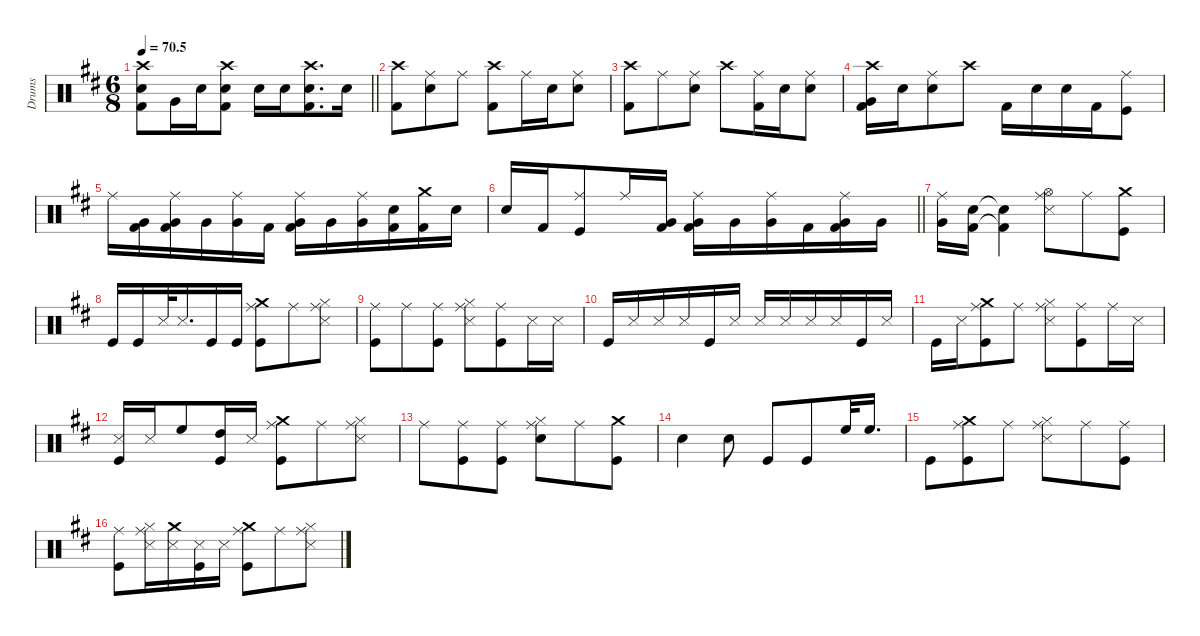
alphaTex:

\defaultSystemsLayout 4
\hideDynamics
\bracketExtendMode groupsimilarinstruments
\firstSystemTrackNameMode fullname
\otherSystemsTrackNameOrientation horizontal
\track ("Drums" "drm.") {defaultSystemsLayout 4 instrument percussion}
\staff {score}
\articulation defaults
\ts (6 8)
\tempo
70.5
\accidentals auto
\clef neutral
\ottava regular
\simile none
\barLineRight lightlight
\ks bminor
("Snare (hit) 2"{acc forcenatural} "Kick (hit) 2"{acc forcenatural} "Crash high (hit)"{acc #}).8{dy ff beam Down} "Very Low Tom (hit)"{acc forcenatural}.16{beam Down} "Snare (hit) 2"{acc forcenatural}.16{beam Down} ("Snare (hit) 2"{acc forcenatural} "Kick (hit) 2"{acc forcenatural} "Crash high (hit)"{acc #}).8{beam Down} "Snare (hit) 2"{acc forcenatural}.16{beam Down} "Snare (hit) 2"{acc forcenatural}.16{beam Down} ("Snare (hit) 2"{acc forcenatural} "Kick (hit) 2"{acc forcenatural} "Crash high (hit)"{acc #}).8{d beam Down} "Snare (hit) 2"{acc forcenatural}.16{beam Down} |
("Crash high (hit)"{acc #} "Kick (hit) 2"{acc forcenatural}).8{beam Down} ("Ride (middle)"{acc #} "Snare (hit) 2"{acc forcenatural}).8{beam Down} "Ride (middle)"{acc #}.8{beam Down} ("Crash high (hit)"{acc #} "Kick (hit) 2"{acc forcenatural}).8{beam Down} "Ride (middle)"{acc #}.16{beam Down} "Snare (hit) 2"{acc forcenatural}.16{beam Down} ("Ride (middle)"{acc #} "Snare (hit) 2"{acc forcenatural}).8{beam Down} |
("Crash high (hit)"{acc #} "Kick (hit) 2"{acc forcenatural}).8{beam Down} "Ride (middle)"{acc #}.8{beam Down} ("Snare (hit) 2"{acc forcenatural} "Ride (middle)"{acc #}).8{beam Down} "Crash high (hit)"{acc #}.8{beam Down} ("Ride (middle)"{acc #} "Kick (hit) 2"{acc forcenatural}).16{beam Down} "Snare (hit) 2"{acc forcenatural}.16{beam Down} ("Snare (hit) 2"{acc forcenatural} "Ride (middle)"{acc #}).8{beam Down} |
("Very Low Tom (hit)"{acc forcenatural} "Kick (hit) 2"{acc forcenatural} "Crash high (hit)"{acc #}).16{beam Down} "Snare (hit) 2"{acc forcenatural}.16{beam Down} ("Ride (middle)"{acc #} "Snare (hit) 2"{acc forcenatural}).8{beam Down} "Crash high (hit)"{acc #}.8{beam Down} "Kick (hit) 2"{acc forcenatural}.16{beam Down} "Snare (hit) 2"{acc forcenatural}.16{beam Down} "Snare (hit) 2"{acc forcenatural}.16{beam Down} "Kick (hit) 2"{acc forcenatural}.16{beam Down} ("Ride (middle)"{acc #} "Kick (hit)"{acc forcenatural}).8{beam Down} |
"Ride (middle)"{acc #}.16{beam Down} ("Kick (hit) 2"{acc forcenatural} "Very Low Tom (hit)"{acc forcenatural}).16{beam Down} ("Very Low Tom (hit)"{acc forcenatural} "Ride (middle)"{acc #} "Kick (hit) 2"{acc forcenatural}).16{beam Down} "Very Low Tom (hit)"{acc forcenatural}.16{beam Down} ("Very Low Tom (hit)"{acc forcenatural} "Ride (middle)"{acc #}).16{beam Down} "Kick (hit) 2"{acc forcenatural}.16{beam Down} ("Very Low Tom (hit)"{acc forcenatural} "Ride (middle)"{acc #} "Kick (hit) 2"{acc forcenatural}).16{beam Down} "Very Low Tom (hit)"{acc forcenatural}.16{beam Down} ("Very Low Tom (hit)"{acc forcenatural} "Ride (middle)"{acc #}).16{beam Down} ("Kick (hit) 2"{acc forcenatural} "Snare (hit) 2"{acc forcenatural}).16{beam Down} ("Kick (hit) 2"{acc forcenatural} "Crash medium (hit)"{acc forcenatural}).16{beam Down} "Snare (hit) 2"{acc forcenatural}.16{beam Down} |
\barLineRight lightlight "Snare (hit) 2"{acc forcenatural}.16{beam Up} "Kick (hit) 2"{acc forcenatural}.16{beam Up}
("Ride (middle)"{acc #} "Kick (hit)"{acc forcenatural}).8{beam Up} "Ride (middle)"{acc #}.16{beam Up} ("Kick (hit) 2"{acc forcenatural} "Very Low Tom (hit)"{acc forcenatural}).16{beam Up} ("Very Low Tom (hit)"{acc forcenatural} "Ride (middle)"{acc #} "Kick (hit) 2"{acc forcenatural}).16{beam Down} "Very Low Tom (hit)"{acc forcenatural}.16{beam Down} ("Very Low Tom (hit)"{acc forcenatural} "Ride (middle)"{acc #}).16{beam Down} "Kick (hit) 2"{acc forcenatural}.16{beam Down} ("Very Low Tom (hit)"{acc forcenatural} "Ride (middle)"{acc #} "Kick (hit) 2"{acc forcenatural}).16{beam Down} "Very Low Tom (hit)"{acc forcenatural}.16{beam Down} |
("Very Low Tom (hit)"{acc forcenatural} "Ride (middle)"{acc #}).16{beam Down} ("Kick (hit) 2"{acc forcenatural} "Snare (hit) 2"{acc forcenatural}).16{beam Down} ("Kick (hit) 2"{t acc forcenatural} "Snare (hit) 2"{t acc forcenatural}).4{dy mf beam Down} ("Hi-Hat (open)"{acc #} "Ride (middle)"{acc #} "Snare (side stick) 3"{acc forcenatural}).8{dy ff beam Down} "Ride (middle)"{acc #}.8{dy f beam Down} ("Kick (hit)"{acc forcenatural} "Crash medium (hit)"{acc forcenatural}).8{beam Down} |
"Kick (hit)"{acc forcenatural}.16{beam Up} "Kick (hit)"{acc forcenatural}.16{beam Up} "Snare (side stick) 3"{acc forcenatural}.32{dy mf beam Up} "Snare (side stick) 3"{acc forcenatural}.16{d dy p beam Up} "Kick (hit)"{acc forcenatural}.16{dy f beam Up} "Kick (hit)"{acc forcenatural}.16{beam Up} ("Crash medium (hit)"{acc forcenatural} "Kick (hit)"{acc forcenatural} "Ride (middle)"{acc #}).8{dy fff beam Down} "Ride (middle)"{acc #}.8{dy f beam Down} ("Hi-Hat (closed)"{acc #} "Ride (middle)"{acc #} "Snare (side stick) 3"{acc forcenatural}).8{dy ff beam Down} |
("Kick (hit)"{acc forcenatural} "Ride (middle)"{acc #}).8{dy fff beam Down} "Ride (middle)"{acc #}.8{dy f beam Down} ("Kick (hit)"{acc forcenatural} "Ride (middle)"{acc #}).8{beam Down} ("Hi-Hat (closed)"{acc #} "Ride (middle)"{acc #} "Snare (side stick) 3"{acc forcenatural}).8{dy fff beam Down} ("Kick (hit)"{acc forcenatural} "Ride (middle)"{acc #}).8{dy f beam Down} "Snare (side stick) 3"{acc forcenatural}.16{dy ff beam Down} "Snare (side stick) 3"{acc forcenatural}.16{dy mf beam Down} |
"Kick (hit)"{acc forcenatural}.16{dy f beam Up} "Snare (side stick) 3"{acc forcenatural}.16{beam Up} "Snare (side stick) 3"{acc forcenatural}.16{beam Up} "Snare (side stick) 3"{acc forcenatural}.16{dy mp beam Up} "Kick (hit)"{acc forcenatural}.16{dy f beam Up} "Snare (side stick) 3"{acc forcenatural}.16{beam Up} "Snare (side stick) 3"{acc forcenatural}.16{beam Up} "Snare (side stick) 3"{acc forcenatural}.16{beam Up} "Snare (side stick) 3"{acc forcenatural}.16{dy mf beam Up} "Snare (side stick) 3"{acc forcenatural}.16{dy mp beam Up} "Kick (hit)"{acc forcenatural}.16{dy f beam Up} "Snare (side stick) 3"{acc forcenatural}.16{beam Up} |
"Kick (hit)"{acc forcenatural}.16{beam Down} "Snare (side stick) 3"{acc forcenatural}.16{beam Down} ("Crash medium (hit)"{acc forcenatural} "Kick (hit)"{acc forcenatural} "Ride (middle)"{acc #}).8{dy fff beam Down} "Ride (middle)"{acc #}.8{dy f beam Down} ("Hi-Hat (closed)"{acc #} "Ride (middle)"{acc #} "Snare (side stick) 3"{acc forcenatural}).8{dy fff beam Down} ("Kick (hit)"{acc forcenatural} "Ride (middle)"{acc #}).8{beam Down} "Ride (middle)"{acc #}.16{beam Down} "Snare (side stick) 3"{acc forcenatural}.16{beam Down} |
("Kick (hit)"{acc forcenatural} "Snare (side stick) 3"{acc forcenatural}).16{dy f beam Up} "Snare (side stick) 3"{acc forcenatural}.16{beam Up} "High Floor Tom (hit)"{acc forcenatural}.8{dy fff beam Up} ("Kick (hit)"{acc forcenatural} "High Tom (hit)"{acc forcenatural}).16{dy f beam Up} "Snare (side stick) 3"{acc forcenatural}.16{beam Up} ("Crash medium (hit)"{acc forcenatural} "Kick (hit)"{acc forcenatural} "Ride (middle)"{acc #}).8{dy fff beam Down} "Ride (middle)"{acc #}.8{dy f beam Down} ("Hi-Hat (closed)"{acc #} "Ride (middle)"{acc #} "Snare (side stick) 3"{acc forcenatural}).8{dy fff beam Down} |
"Ride (middle)"{acc #}.8{beam Down} ("Kick (hit)"{acc forcenatural} "Ride (middle)"{acc #}).8{beam Down} ("Kick (hit)"{acc forcenatural} "Ride (middle)"{acc #}).8{dy f beam Down} ("Hi-Hat (closed)"{acc #} "Ride (middle)"{acc #} "Snare (hit) 2"{acc forcenatural}).8{dy fff beam Down} "Ride (middle)"{acc #}.8{dy mp beam Down} ("Kick (hit)"{acc forcenatural} "Crash medium (hit)"{acc forcenatural}).8{dy f beam Down} |
"Snare (hit) 2"{acc forcenatural}.4{dy fff beam Down} "Snare (hit) 2"{acc forcenatural}.8{dy f beam Down} "Kick (hit)"{acc forcenatural}.8{beam Up} "Kick (hit)"{acc forcenatural}.8{beam Up} "High Floor Tom (hit)"{acc forcenatural}.32{dy fff beam Up} "High Floor Tom (hit)"{acc forcenatural}.16{d dy f beam Up} |
"Kick (hit)"{acc forcenatural}.8{beam Down} ("Crash medium (hit)"{acc forcenatural} "Kick (hit)"{acc forcenatural} "Ride (middle)"{acc #}).8{dy fff beam Down} "Ride (middle)"{acc #}.8{dy f beam Down} ("Snare (side stick) 3"{acc forcenatural} "Hi-Hat (closed)"{acc #} "Ride (middle)"{acc #}).8{dy fff beam Down} "Ride (middle)"{acc #}.8{beam Down} ("Kick (hit)"{acc forcenatural} "Ride (middle)"{acc #}).8{beam Down} |
("Kick (hit)"{acc forcenatural} "Ride (middle)"{acc #}).8{dy f beam Down} ("Snare (side stick) 3"{acc forcenatural} "Hi-Hat (closed)"{acc #} "Ride (middle)"{acc #}).16{dy fff beam Down} ("Snare (side stick) 3"{acc forcenatural} "Crash medium (hit)"{acc forcenatural}).16{dy mf beam Down} ("Kick (hit)"{acc forcenatural} "Snare (side stick) 3"{acc forcenatural}).16{dy f beam Down} "Snare (side stick) 3"{acc forcenatural}.16{beam Down} ("Crash medium (hit)"{acc forcenatural} "Kick (hit)"{acc forcenatural} "Ride (middle)"{acc #}).8{dy fff beam Down} "Ride (middle)"{acc #}.8{dy f beam Down} ("Hi-Hat (closed)"{acc #} "Ride (middle)"{acc #} "Snare (side stick) 3"{acc forcenatural}).8{dy fff beam Down}
